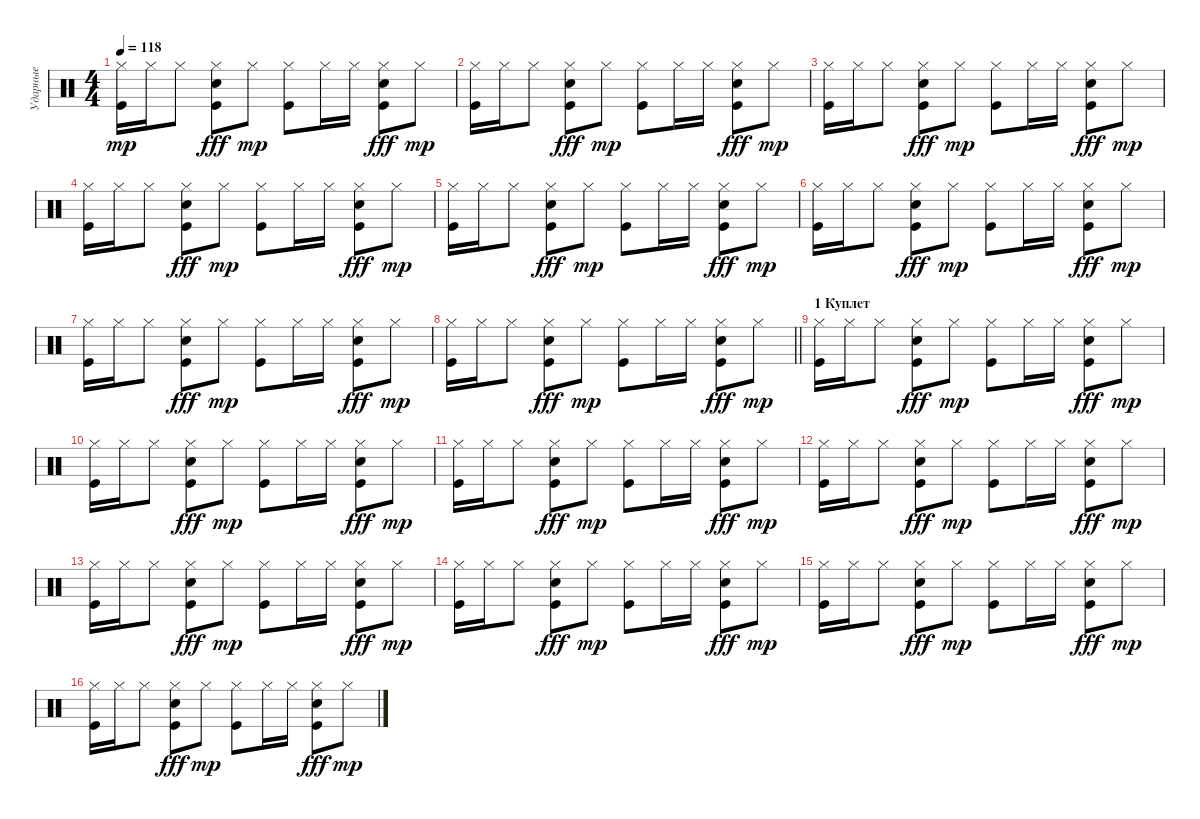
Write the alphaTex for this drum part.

\track ("Ударные" "Ударные") {instrument percussion}
\staff {score}
\articulation defaults
\ts (4 4)
\tempo 118
\clef neutral
\ks c
("Kick (hit)" "Hi-Hat (closed)").16{dy mp} "Hi-Hat (closed)".16 "Hi-Hat (closed)".8 ("Kick (hit)" "Hi-Hat (closed)" "Electric Snare (hit)").8{dy fff} "Hi-Hat (closed)".8{dy mp} ("Kick (hit)" "Hi-Hat (closed)").8 "Hi-Hat (closed)".16 "Hi-Hat (closed)".16 ("Hi-Hat (closed)" "Kick (hit)" "Electric Snare (hit)").8{dy fff} "Hi-Hat (closed)".8{dy mp} |
("Kick (hit)" "Hi-Hat (closed)").16 "Hi-Hat (closed)".16 "Hi-Hat (closed)".8 ("Kick (hit)" "Hi-Hat (closed)" "Electric Snare (hit)").8{dy fff} "Hi-Hat (closed)".8{dy mp} ("Kick (hit)" "Hi-Hat (closed)").8 "Hi-Hat (closed)".16 "Hi-Hat (closed)".16 ("Hi-Hat (closed)" "Kick (hit)" "Electric Snare (hit)").8{dy fff} "Hi-Hat (closed)".8{dy mp} |
("Kick (hit)" "Hi-Hat (closed)").16 "Hi-Hat (closed)".16 "Hi-Hat (closed)".8 ("Kick (hit)" "Hi-Hat (closed)" "Electric Snare (hit)").8{dy fff} "Hi-Hat (closed)".8{dy mp} ("Kick (hit)" "Hi-Hat (closed)").8 "Hi-Hat (closed)".16 "Hi-Hat (closed)".16 ("Hi-Hat (closed)" "Kick (hit)" "Electric Snare (hit)").8{dy fff} "Hi-Hat (closed)".8{dy mp} |
("Kick (hit)" "Hi-Hat (closed)").16 "Hi-Hat (closed)".16 "Hi-Hat (closed)".8 ("Kick (hit)" "Hi-Hat (closed)" "Electric Snare (hit)").8{dy fff} "Hi-Hat (closed)".8{dy mp} ("Kick (hit)" "Hi-Hat (closed)").8 "Hi-Hat (closed)".16 "Hi-Hat (closed)".16 ("Hi-Hat (closed)" "Kick (hit)" "Electric Snare (hit)").8{dy fff} "Hi-Hat (closed)".8{dy mp} |
("Kick (hit)" "Hi-Hat (closed)").16 "Hi-Hat (closed)".16 "Hi-Hat (closed)".8 ("Kick (hit)" "Hi-Hat (closed)" "Electric Snare (hit)").8{dy fff} "Hi-Hat (closed)".8{dy mp} ("Kick (hit)" "Hi-Hat (closed)").8 "Hi-Hat (closed)".16 "Hi-Hat (closed)".16 ("Hi-Hat (closed)" "Kick (hit)" "Electric Snare (hit)").8{dy fff} "Hi-Hat (closed)".8{dy mp} |
("Kick (hit)" "Hi-Hat (closed)").16 "Hi-Hat (closed)".16 "Hi-Hat (closed)".8 ("Kick (hit)" "Hi-Hat (closed)" "Electric Snare (hit)").8{dy fff} "Hi-Hat (closed)".8{dy mp} ("Kick (hit)" "Hi-Hat (closed)").8 "Hi-Hat (closed)".16 "Hi-Hat (closed)".16 ("Hi-Hat (closed)" "Kick (hit)" "Electric Snare (hit)").8{dy fff} "Hi-Hat (closed)".8{dy mp} |
("Kick (hit)" "Hi-Hat (closed)").16 "Hi-Hat (closed)".16 "Hi-Hat (closed)".8 ("Kick (hit)" "Hi-Hat (closed)" "Electric Snare (hit)").8{dy fff} "Hi-Hat (closed)".8{dy mp} ("Kick (hit)" "Hi-Hat (closed)").8 "Hi-Hat (closed)".16 "Hi-Hat (closed)".16 ("Hi-Hat (closed)" "Kick (hit)" "Electric Snare (hit)").8{dy fff} "Hi-Hat (closed)".8{dy mp} |
\barLineRight lightlight
("Kick (hit)" "Hi-Hat (closed)").16 "Hi-Hat (closed)".16 "Hi-Hat (closed)".8 ("Kick (hit)" "Hi-Hat (closed)" "Electric Snare (hit)").8{dy fff} "Hi-Hat (closed)".8{dy mp} ("Kick (hit)" "Hi-Hat (closed)").8 "Hi-Hat (closed)".16 "Hi-Hat (closed)".16 ("Hi-Hat (closed)" "Kick (hit)" "Electric Snare (hit)").8{dy fff} "Hi-Hat (closed)".8{dy mp} |
\section ("" "1 Куплет")
("Kick (hit)" "Hi-Hat (closed)").16 "Hi-Hat (closed)".16 "Hi-Hat (closed)".8 ("Kick (hit)" "Hi-Hat (closed)" "Electric Snare (hit)").8{dy fff} "Hi-Hat (closed)".8{dy mp} ("Kick (hit)" "Hi-Hat (closed)").8 "Hi-Hat (closed)".16 "Hi-Hat (closed)".16 ("Hi-Hat (closed)" "Kick (hit)" "Electric Snare (hit)").8{dy fff} "Hi-Hat (closed)".8{dy mp} |
("Kick (hit)" "Hi-Hat (closed)").16 "Hi-Hat (closed)".16 "Hi-Hat (closed)".8 ("Kick (hit)" "Hi-Hat (closed)" "Electric Snare (hit)").8{dy fff} "Hi-Hat (closed)".8{dy mp} ("Kick (hit)" "Hi-Hat (closed)").8 "Hi-Hat (closed)".16 "Hi-Hat (closed)".16 ("Hi-Hat (closed)" "Kick (hit)" "Electric Snare (hit)").8{dy fff} "Hi-Hat (closed)".8{dy mp} |
("Kick (hit)" "Hi-Hat (closed)").16 "Hi-Hat (closed)".16 "Hi-Hat (closed)".8 ("Kick (hit)" "Hi-Hat (closed)" "Electric Snare (hit)").8{dy fff} "Hi-Hat (closed)".8{dy mp} ("Kick (hit)" "Hi-Hat (closed)").8 "Hi-Hat (closed)".16 "Hi-Hat (closed)".16 ("Hi-Hat (closed)" "Kick (hit)" "Electric Snare (hit)").8{dy fff} "Hi-Hat (closed)".8{dy mp} |
("Kick (hit)" "Hi-Hat (closed)").16 "Hi-Hat (closed)".16 "Hi-Hat (closed)".8 ("Kick (hit)" "Hi-Hat (closed)" "Electric Snare (hit)").8{dy fff} "Hi-Hat (closed)".8{dy mp} ("Kick (hit)" "Hi-Hat (closed)").8 "Hi-Hat (closed)".16 "Hi-Hat (closed)".16 ("Hi-Hat (closed)" "Kick (hit)" "Electric Snare (hit)").8{dy fff} "Hi-Hat (closed)".8{dy mp} |
("Kick (hit)" "Hi-Hat (closed)").16 "Hi-Hat (closed)".16 "Hi-Hat (closed)".8 ("Kick (hit)" "Hi-Hat (closed)" "Electric Snare (hit)").8{dy fff} "Hi-Hat (closed)".8{dy mp} ("Kick (hit)" "Hi-Hat (closed)").8 "Hi-Hat (closed)".16 "Hi-Hat (closed)".16 ("Hi-Hat (closed)" "Kick (hit)" "Electric Snare (hit)").8{dy fff} "Hi-Hat (closed)".8{dy mp} |
("Kick (hit)" "Hi-Hat (closed)").16 "Hi-Hat (closed)".16 "Hi-Hat (closed)".8 ("Kick (hit)" "Hi-Hat (closed)" "Electric Snare (hit)").8{dy fff} "Hi-Hat (closed)".8{dy mp} ("Kick (hit)" "Hi-Hat (closed)").8 "Hi-Hat (closed)".16 "Hi-Hat (closed)".16 ("Hi-Hat (closed)" "Kick (hit)" "Electric Snare (hit)").8{dy fff} "Hi-Hat (closed)".8{dy mp} |
("Kick (hit)" "Hi-Hat (closed)").16 "Hi-Hat (closed)".16 "Hi-Hat (closed)".8 ("Kick (hit)" "Hi-Hat (closed)" "Electric Snare (hit)").8{dy fff} "Hi-Hat (closed)".8{dy mp} ("Kick (hit)" "Hi-Hat (closed)").8 "Hi-Hat (closed)".16 "Hi-Hat (closed)".16 ("Hi-Hat (closed)" "Kick (hit)" "Electric Snare (hit)").8{dy fff} "Hi-Hat (closed)".8{dy mp} |
("Kick (hit)" "Hi-Hat (closed)").16 "Hi-Hat (closed)".16 "Hi-Hat (closed)".8 ("Kick (hit)" "Hi-Hat (closed)" "Electric Snare (hit)").8{dy fff} "Hi-Hat (closed)".8{dy mp} ("Kick (hit)" "Hi-Hat (closed)").8 "Hi-Hat (closed)".16 "Hi-Hat (closed)".16 ("Hi-Hat (closed)" "Kick (hit)" "Electric Snare (hit)").8{dy fff} "Hi-Hat (closed)".8{dy mp}
